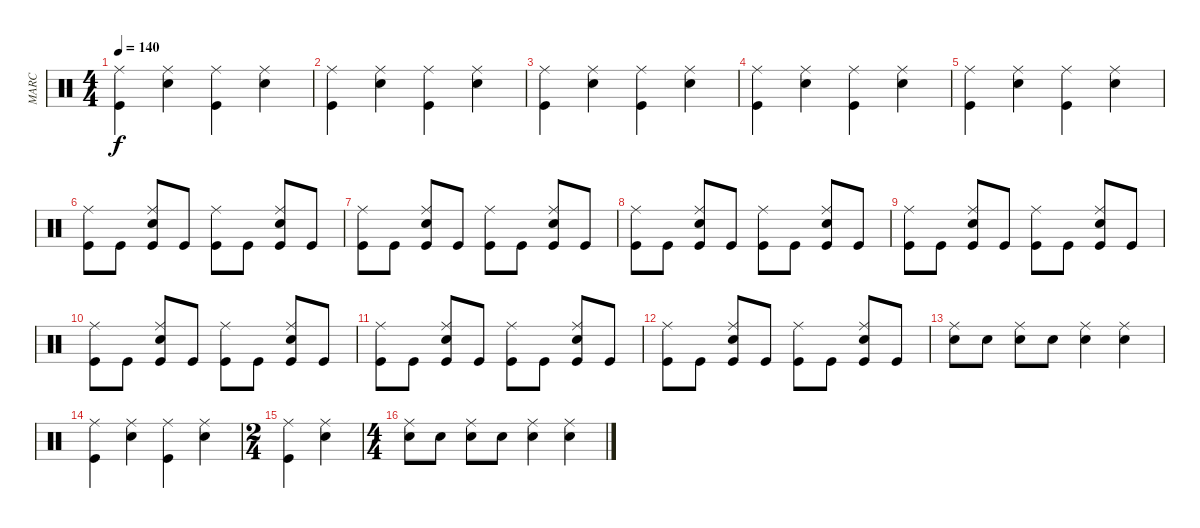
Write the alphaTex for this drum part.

\track ("MARC" "MARC") {instrument percussion}
\staff {score}
\articulation defaults
\ts (4 4)
\tempo 140
\clef neutral
\ks c
("Kick (hit)" "Ride (middle)").4{dy f} ("Snare (hit) 2" "Ride (middle)").4 ("Kick (hit)" "Ride (middle)").4 ("Snare (hit) 2" "Ride (middle)").4 |
("Kick (hit)" "Ride (middle)").4 ("Snare (hit) 2" "Ride (middle)").4 ("Kick (hit)" "Ride (middle)").4 ("Snare (hit) 2" "Ride (middle)").4 |
("Kick (hit)" "Ride (middle)").4 ("Snare (hit) 2" "Ride (middle)").4 ("Kick (hit)" "Ride (middle)").4 ("Snare (hit) 2" "Ride (middle)").4 |
("Kick (hit)" "Ride (middle)").4 ("Snare (hit) 2" "Ride (middle)").4 ("Kick (hit)" "Ride (middle)").4 ("Snare (hit) 2" "Ride (middle)").4 |
("Kick (hit)" "Ride (middle)").4 ("Snare (hit) 2" "Ride (middle)").4 ("Kick (hit)" "Ride (middle)").4 ("Snare (hit) 2" "Ride (middle)").4 |
("Kick (hit)" "Ride (middle)").8 "Kick (hit)".8 ("Kick (hit)" "Snare (hit) 2" "Ride (middle)").8 "Kick (hit)".8 ("Kick (hit)" "Ride (middle)").8 "Kick (hit)".8 ("Kick (hit)" "Snare (hit) 2" "Ride (middle)").8 "Kick (hit)".8 |
("Kick (hit)" "Ride (middle)").8 "Kick (hit)".8 ("Kick (hit)" "Snare (hit) 2" "Ride (middle)").8 "Kick (hit)".8 ("Kick (hit)" "Ride (middle)").8 "Kick (hit)".8 ("Kick (hit)" "Snare (hit) 2" "Ride (middle)").8 "Kick (hit)".8 |
("Kick (hit)" "Ride (middle)").8 "Kick (hit)".8 ("Kick (hit)" "Snare (hit) 2" "Ride (middle)").8 "Kick (hit)".8 ("Kick (hit)" "Ride (middle)").8 "Kick (hit)".8 ("Kick (hit)" "Snare (hit) 2" "Ride (middle)").8 "Kick (hit)".8 |
("Kick (hit)" "Ride (middle)").8 "Kick (hit)".8 ("Kick (hit)" "Snare (hit) 2" "Ride (middle)").8 "Kick (hit)".8 ("Kick (hit)" "Ride (middle)").8 "Kick (hit)".8 ("Kick (hit)" "Snare (hit) 2" "Ride (middle)").8 "Kick (hit)".8 |
("Kick (hit)" "Ride (middle)").8 "Kick (hit)".8 ("Kick (hit)" "Snare (hit) 2" "Ride (middle)").8 "Kick (hit)".8 ("Kick (hit)" "Ride (middle)").8 "Kick (hit)".8 ("Kick (hit)" "Snare (hit) 2" "Ride (middle)").8 "Kick (hit)".8 |
("Kick (hit)" "Ride (middle)").8 "Kick (hit)".8 ("Kick (hit)" "Snare (hit) 2" "Ride (middle)").8 "Kick (hit)".8 ("Kick (hit)" "Ride (middle)").8 "Kick (hit)".8 ("Kick (hit)" "Snare (hit) 2" "Ride (middle)").8 "Kick (hit)".8 |
("Kick (hit)" "Ride (middle)").8 "Kick (hit)".8 ("Kick (hit)" "Snare (hit) 2" "Ride (middle)").8 "Kick (hit)".8 ("Kick (hit)" "Ride (middle)").8 "Kick (hit)".8 ("Kick (hit)" "Snare (hit) 2" "Ride (middle)").8 "Kick (hit)".8 |
("Snare (hit) 2" "Ride (middle)").8 "Snare (hit) 2".8 ("Snare (hit) 2" "Ride (middle)").8 "Snare (hit) 2".8 ("Snare (hit) 2" "Ride (middle)").4 ("Snare (hit) 2" "Ride (middle)").4 |
("Kick (hit)" "Ride (middle)").4 ("Snare (hit) 2" "Ride (middle)").4 ("Kick (hit)" "Ride (middle)").4 ("Snare (hit) 2" "Ride (middle)").4 |
\ts (2 4)
("Kick (hit)" "Ride (middle)").4 ("Snare (hit) 2" "Ride (middle)").4 |
\ts (4 4)
("Snare (hit) 2" "Ride (middle)").8 "Snare (hit) 2".8 ("Snare (hit) 2" "Ride (middle)").8 "Snare (hit) 2".8 ("Snare (hit) 2" "Ride (middle)").4 ("Snare (hit) 2" "Ride (middle)").4
